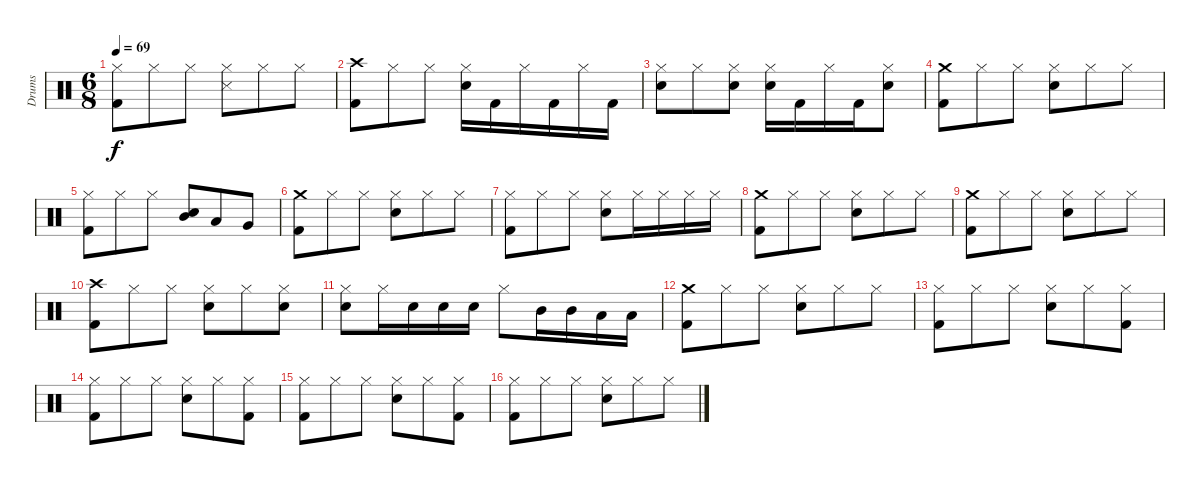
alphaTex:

\track ("Drums" "Drums") {instrument percussion}
\staff {score}
\articulation defaults
\ts (6 8)
\tempo 69
\clef neutral
\ks c
("Hi-Hat (closed)" "Kick (hit) 2").8{dy f} "Hi-Hat (closed)".8 "Hi-Hat (closed)".8 ("Hi-Hat (closed)" "Snare (side stick) 3").8 "Hi-Hat (closed)".8 "Hi-Hat (closed)".8 |
("Crash high (hit)" "Kick (hit) 2").8 "Hi-Hat (closed)".8 "Hi-Hat (closed)".8 ("Hi-Hat (closed)" "Snare (hit) 2").16 "Kick (hit) 2".16 "Hi-Hat (closed)".16 "Kick (hit) 2".16 "Hi-Hat (closed)".16 "Kick (hit) 2".16 |
("Hi-Hat (closed)" "Snare (hit) 2").8 "Hi-Hat (closed)".8 ("Hi-Hat (closed)" "Snare (hit) 2").8 ("Hi-Hat (closed)" "Snare (hit) 2").16 "Kick (hit) 2".16 "Hi-Hat (closed)".16 "Kick (hit) 2".16 ("Hi-Hat (closed)" "Snare (hit) 2").8 |
("Crash medium (hit)" "Kick (hit) 2").8 "Hi-Hat (closed)".8 "Hi-Hat (closed)".8 ("Hi-Hat (closed)" "Snare (hit) 2").8 "Hi-Hat (closed)".8 "Hi-Hat (closed)".8 |
("Hi-Hat (closed)" "Kick (hit) 2").8 "Hi-Hat (closed)".8 "Hi-Hat (closed)".8 ("Snare (hit) 2" "Mid Tom (hit)").8 "Low Tom (hit)".8 "Very Low Tom (hit)".8 |
("Crash medium (hit)" "Kick (hit) 2").8 "Hi-Hat (closed)".8 "Hi-Hat (closed)".8 ("Hi-Hat (closed)" "Snare (hit) 2").8 "Hi-Hat (closed)".8 "Hi-Hat (closed)".8 |
("Hi-Hat (closed)" "Kick (hit) 2").8 "Hi-Hat (closed)".8 "Hi-Hat (closed)".8 ("Hi-Hat (closed)" "Snare (hit) 2").8 "Hi-Hat (closed)".16 "Hi-Hat (closed)".16 "Hi-Hat (closed)".16 "Hi-Hat (closed)".16 |
("Crash medium (hit)" "Kick (hit) 2").8 "Hi-Hat (closed)".8 "Hi-Hat (closed)".8 ("Hi-Hat (closed)" "Snare (hit) 2").8 "Hi-Hat (closed)".8 "Hi-Hat (closed)".8 |
("Crash medium (hit)" "Kick (hit) 2").8 "Hi-Hat (closed)".8 "Hi-Hat (closed)".8 ("Hi-Hat (closed)" "Snare (hit) 2").8 "Hi-Hat (closed)".8 "Hi-Hat (closed)".8 |
("Crash high (hit)" "Kick (hit) 2").8 "Hi-Hat (closed)".8 "Hi-Hat (closed)".8 ("Hi-Hat (closed)" "Snare (hit) 2").8 "Hi-Hat (closed)".8 ("Hi-Hat (closed)" "Snare (hit) 2").8 |
("Hi-Hat (closed)" "Snare (hit) 2").8 "Hi-Hat (closed)".16 "Snare (hit) 2".16 "Snare (hit) 2".16 "Snare (hit) 2".16 "Hi-Hat (closed)".8 "Mid Tom (hit)".16 "Mid Tom (hit)".16 "Low Tom (hit)".16 "Low Tom (hit)".16 |
("Crash medium (hit)" "Kick (hit) 2").8 "Hi-Hat (closed)".8 "Hi-Hat (closed)".8 ("Hi-Hat (closed)" "Snare (hit) 2").8 "Hi-Hat (closed)".8 "Hi-Hat (closed)".8 |
("Hi-Hat (closed)" "Kick (hit) 2").8 "Hi-Hat (closed)".8 "Hi-Hat (closed)".8 ("Hi-Hat (closed)" "Snare (hit) 2").8 "Hi-Hat (closed)".8 ("Hi-Hat (closed)" "Kick (hit) 2").8 |
("Hi-Hat (closed)" "Kick (hit) 2").8 "Hi-Hat (closed)".8 "Hi-Hat (closed)".8 ("Hi-Hat (closed)" "Snare (hit) 2").8 "Hi-Hat (closed)".8 ("Hi-Hat (closed)" "Kick (hit) 2").8 |
("Hi-Hat (closed)" "Kick (hit) 2").8 "Hi-Hat (closed)".8 "Hi-Hat (closed)".8 ("Hi-Hat (closed)" "Snare (hit) 2").8 "Hi-Hat (closed)".8 ("Hi-Hat (closed)" "Kick (hit) 2").8 |
("Hi-Hat (closed)" "Kick (hit) 2").8 "Hi-Hat (closed)".8 "Hi-Hat (closed)".8 ("Hi-Hat (closed)" "Snare (hit) 2").8 "Hi-Hat (closed)".8 "Hi-Hat (closed)".8
